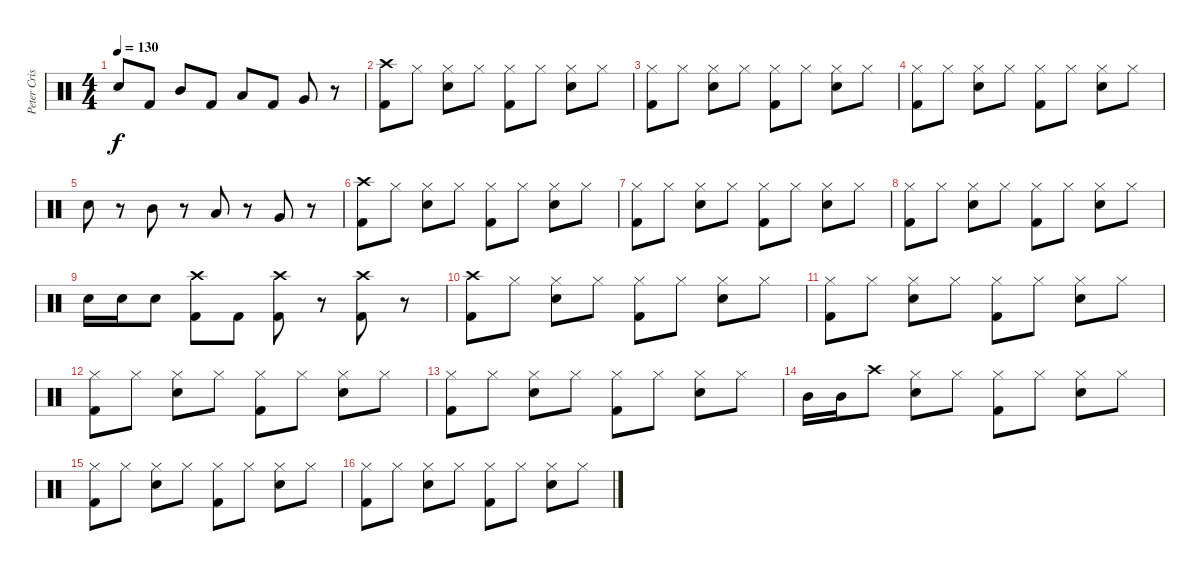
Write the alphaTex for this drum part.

\track ("Peter Criss" "Peter Cris") {instrument percussion}
\staff {score}
\articulation defaults
\ts (4 4)
\tempo 130
\clef neutral
\ks c "Electric Snare (hit)".8{dy f} "Kick (hit) 2".8 "Mid Tom (hit)".8 "Kick (hit) 2".8 "Low Tom (hit)".8 "Kick (hit) 2".8 "Very Low Tom (hit)".8
r.8 |
("Crash high (hit)" "Kick (hit) 2").8 "Hi-Hat (closed)".8 ("Hi-Hat (closed)" "Electric Snare (hit)").8 "Hi-Hat (closed)".8 ("Hi-Hat (closed)" "Kick (hit) 2").8 "Hi-Hat (closed)".8 ("Hi-Hat (closed)" "Electric Snare (hit)").8 "Hi-Hat (closed)".8 |
("Hi-Hat (closed)" "Kick (hit) 2").8 "Hi-Hat (closed)".8 ("Hi-Hat (closed)" "Electric Snare (hit)").8 "Hi-Hat (closed)".8 ("Hi-Hat (closed)" "Kick (hit) 2").8 "Hi-Hat (closed)".8 ("Hi-Hat (closed)" "Electric Snare (hit)").8 "Hi-Hat (closed)".8 |
("Hi-Hat (closed)" "Kick (hit) 2").8 "Hi-Hat (closed)".8 ("Hi-Hat (closed)" "Electric Snare (hit)").8 "Hi-Hat (closed)".8 ("Hi-Hat (closed)" "Kick (hit) 2").8 "Hi-Hat (closed)".8 ("Hi-Hat (closed)" "Electric Snare (hit)").8 "Hi-Hat (closed)".8 |
"Electric Snare (hit)".8 r.8 "Mid Tom (hit)".8 r.8 "Low Tom (hit)".8 r.8 "Very Low Tom (hit)".8 r.8 |
("Crash high (hit)" "Kick (hit) 2").8 "Hi-Hat (closed)".8 ("Hi-Hat (closed)" "Electric Snare (hit)").8 "Hi-Hat (closed)".8 ("Hi-Hat (closed)" "Kick (hit) 2").8 "Hi-Hat (closed)".8 ("Hi-Hat (closed)" "Electric Snare (hit)").8 "Hi-Hat (closed)".8 |
("Hi-Hat (closed)" "Kick (hit) 2").8 "Hi-Hat (closed)".8 ("Hi-Hat (closed)" "Electric Snare (hit)").8 "Hi-Hat (closed)".8 ("Hi-Hat (closed)" "Kick (hit) 2").8 "Hi-Hat (closed)".8 ("Hi-Hat (closed)" "Electric Snare (hit)").8 "Hi-Hat (closed)".8 |
("Hi-Hat (closed)" "Kick (hit) 2").8 "Hi-Hat (closed)".8 ("Hi-Hat (closed)" "Electric Snare (hit)").8 "Hi-Hat (closed)".8 ("Hi-Hat (closed)" "Kick (hit) 2").8 "Hi-Hat (closed)".8 ("Hi-Hat (closed)" "Electric Snare (hit)").8 "Hi-Hat (closed)".8 |
"Electric Snare (hit)".16 "Electric Snare (hit)".16 "Electric Snare (hit)".8 ("Crash high (hit)" "Kick (hit) 2").8 "Kick (hit) 2".8 ("Crash high (hit)" "Kick (hit) 2").8 r.8 ("Crash high (hit)" "Kick (hit) 2").8 r.8 |
("Crash high (hit)" "Kick (hit) 2").8 "Hi-Hat (closed)".8 ("Hi-Hat (closed)" "Electric Snare (hit)").8 "Hi-Hat (closed)".8 ("Hi-Hat (closed)" "Kick (hit) 2").8 "Hi-Hat (closed)".8 ("Hi-Hat (closed)" "Electric Snare (hit)").8 "Hi-Hat (closed)".8 |
("Hi-Hat (closed)" "Kick (hit) 2").8 "Hi-Hat (closed)".8 ("Hi-Hat (closed)" "Electric Snare (hit)").8 "Hi-Hat (closed)".8 ("Hi-Hat (closed)" "Kick (hit) 2").8 "Hi-Hat (closed)".8 ("Hi-Hat (closed)" "Electric Snare (hit)").8 "Hi-Hat (closed)".8 |
("Hi-Hat (closed)" "Kick (hit) 2").8 "Hi-Hat (closed)".8 ("Hi-Hat (closed)" "Electric Snare (hit)").8 "Hi-Hat (closed)".8 ("Hi-Hat (closed)" "Kick (hit) 2").8 "Hi-Hat (closed)".8 ("Hi-Hat (closed)" "Electric Snare (hit)").8 "Hi-Hat (closed)".8 |
("Hi-Hat (closed)" "Kick (hit) 2").8 "Hi-Hat (closed)".8 ("Hi-Hat (closed)" "Electric Snare (hit)").8 "Hi-Hat (closed)".8 ("Hi-Hat (closed)" "Kick (hit) 2").8 "Hi-Hat (closed)".8 ("Hi-Hat (closed)" "Electric Snare (hit)").8 "Hi-Hat (closed)".8 |
"Mid Tom (hit)".16 "Mid Tom (hit)".16 "Crash high (hit)".8 ("Hi-Hat (closed)" "Electric Snare (hit)").8 "Hi-Hat (closed)".8 ("Hi-Hat (closed)" "Kick (hit) 2").8 "Hi-Hat (closed)".8 ("Hi-Hat (closed)" "Electric Snare (hit)").8 "Hi-Hat (closed)".8 |
("Hi-Hat (closed)" "Kick (hit) 2").8 "Hi-Hat (closed)".8 ("Hi-Hat (closed)" "Electric Snare (hit)").8 "Hi-Hat (closed)".8 ("Hi-Hat (closed)" "Kick (hit) 2").8 "Hi-Hat (closed)".8 ("Hi-Hat (closed)" "Electric Snare (hit)").8 "Hi-Hat (closed)".8 |
("Hi-Hat (closed)" "Kick (hit) 2").8 "Hi-Hat (closed)".8 ("Hi-Hat (closed)" "Electric Snare (hit)").8 "Hi-Hat (closed)".8 ("Hi-Hat (closed)" "Kick (hit) 2").8 "Hi-Hat (closed)".8 ("Hi-Hat (closed)" "Electric Snare (hit)").8 "Hi-Hat (closed)".8
